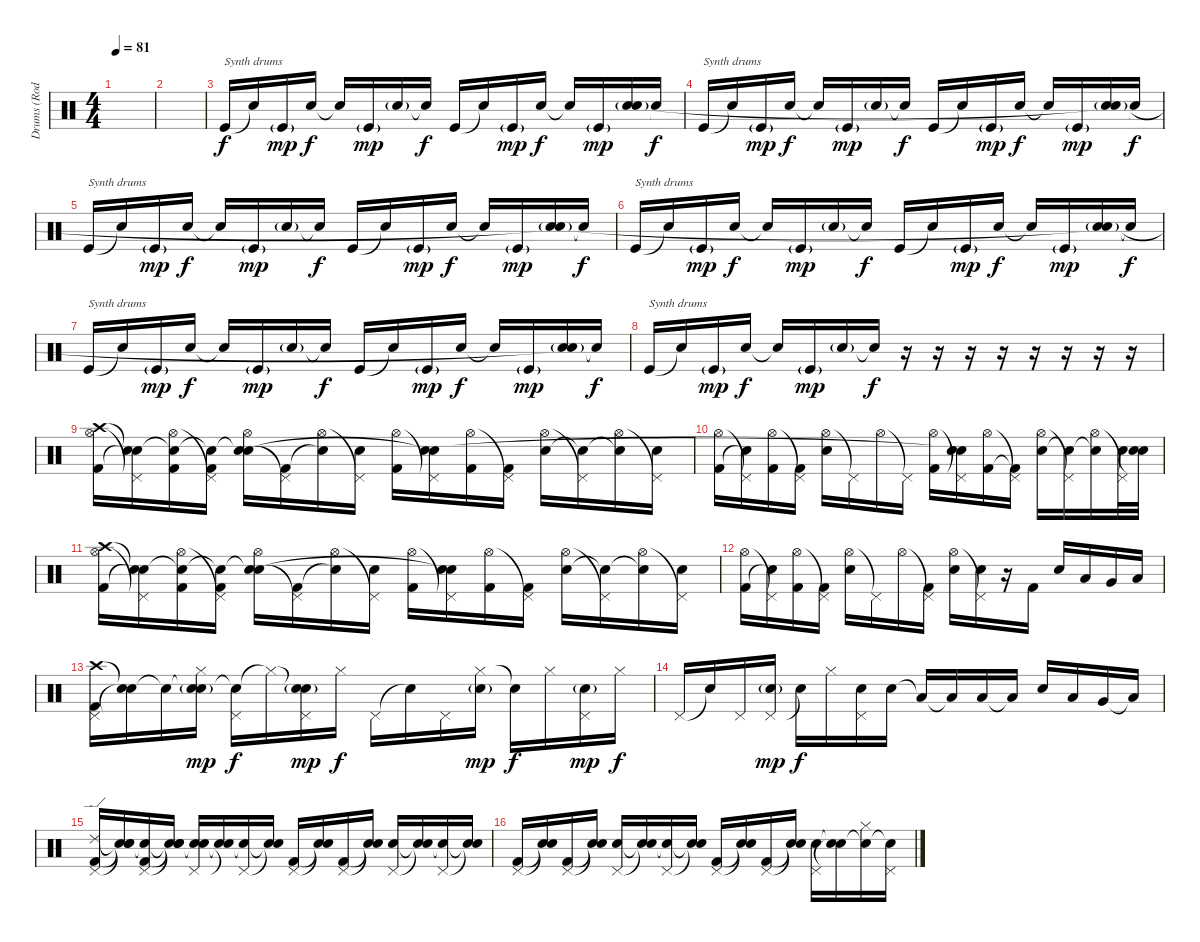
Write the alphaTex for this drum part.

\track ("Drums (Rod Bourdon)" "Drums (Rod") {instrument percussion}
\staff {score}
\articulation defaults
\ts (4 4)
\tempo 81
\clef neutral
\ks c
|
|
"Kick (hit)".16{txt "Synth drums" volume 6} "Snare (hit)"{t}.16 "Kick (hit)"{g}.16{dy mp} "Metronome (bell)".16{dy f} "Snare (hit)"{t}.16 "Kick (hit)"{g}.16{dy mp} "Metronome (bell)"{g}.16 "Snare (hit)"{t}.16{dy f} "Kick (hit)".16 "Snare (hit)"{t}.16 "Kick (hit)"{g}.16{dy mp} "Metronome (bell)".16{dy f} "Snare (hit)"{t}.16 "Kick (hit)"{g}.16{dy mp} ("Metronome (bell)"{g} "Snare (hit)").16 "Snare (hit)"{t}.16{dy f} |
"Kick (hit)".16{txt "Synth drums" volume 6} "Snare (hit)"{t}.16 "Kick (hit)"{g}.16{dy mp} "Metronome (bell)".16{dy f} "Snare (hit)"{t}.16 "Kick (hit)"{g}.16{dy mp} "Metronome (bell)"{g}.16 "Snare (hit)"{t}.16{dy f} "Kick (hit)".16 "Snare (hit)"{t}.16 "Kick (hit)"{g}.16{dy mp} "Metronome (bell)".16{dy f} "Snare (hit)"{t}.16 "Kick (hit)"{g}.16{dy mp} ("Metronome (bell)"{g} "Snare (hit)"{t}).16 "Snare (hit)"{t}.16{dy f} |
"Kick (hit)".16{txt "Synth drums" volume 6} "Snare (hit)"{t}.16 "Kick (hit)"{g}.16{dy mp} "Metronome (bell)".16{dy f} "Snare (hit)"{t}.16 "Kick (hit)"{g}.16{dy mp} "Metronome (bell)"{g}.16 "Snare (hit)"{t}.16{dy f} "Kick (hit)".16 "Snare (hit)"{t}.16 "Kick (hit)"{g}.16{dy mp} "Metronome (bell)".16{dy f} "Snare (hit)"{t}.16 "Kick (hit)"{g}.16{dy mp} ("Metronome (bell)"{g} "Snare (hit)"{t}).16 "Snare (hit)"{t}.16{dy f} |
"Kick (hit)".16{txt "Synth drums" volume 6} "Snare (hit)"{t}.16 "Kick (hit)"{g}.16{dy mp} "Metronome (bell)".16{dy f} "Snare (hit)"{t}.16 "Kick (hit)"{g}.16{dy mp} "Metronome (bell)"{g}.16 "Snare (hit)"{t}.16{dy f} "Kick (hit)".16 "Snare (hit)"{t}.16 "Kick (hit)"{g}.16{dy mp} "Metronome (bell)".16{dy f} "Snare (hit)"{t}.16 "Kick (hit)"{g}.16{dy mp} ("Metronome (bell)"{g} "Snare (hit)"{t}).16 "Snare (hit)"{t}.16{dy f} |
"Kick (hit)".16{txt "Synth drums" volume 6} "Snare (hit)"{t}.16 "Kick (hit)"{g}.16{dy mp} "Metronome (bell)".16{dy f} "Snare (hit)"{t}.16 "Kick (hit)"{g}.16{dy mp} "Metronome (bell)"{g}.16 "Snare (hit)"{t}.16{dy f} "Kick (hit)".16 "Snare (hit)"{t}.16 "Kick (hit)"{g}.16{dy mp} "Metronome (bell)".16{dy f} "Snare (hit)"{t}.16 "Kick (hit)"{g}.16{dy mp} ("Metronome (bell)"{g} "Snare (hit)"{t}).16 "Snare (hit)"{t}.16{dy f} |
"Kick (hit)".16{txt "Synth drums" volume 6} "Snare (hit)"{t}.16 "Kick (hit)"{g}.16{dy mp} "Metronome (bell)".16{dy f} "Snare (hit)"{t}.16 "Kick (hit)"{g}.16{dy mp} "Metronome (bell)"{g}.16 "Snare (hit)"{t}.16{dy f} r.16 r.16 r.16 r.16 r.16 r.16 r.16 r.16 |
("Crash high (hit)" "Hi-Hat (open)" "Kick (hit) 2").16{volume 13} ("Snare (hit)"{t} "Pedal Hi-Hat (hit)"{t} "Snare (hit)"{t}).16 ("Snare (hit)"{t} "Hi-Hat (open)" "Kick (hit) 2").16 ("Snare (hit)"{t} "Pedal Hi-Hat (hit)"{t} "Kick (hit) 2").16 ("Snare (hit)"{t} "Hi-Hat (open)" "Electric Snare (hit)").16 ("Pedal Hi-Hat (hit)"{t} "Kick (hit) 2").16 ("Hi-Hat (open)" "Snare (hit)"{t}).16 ("Pedal Hi-Hat (hit)"{t} "Electric Snare (hit)").16 ("Hi-Hat (open)" "Kick (hit) 2").16 ("Pedal Hi-Hat (hit)"{t} "Electric Snare (hit)" "Snare (hit)"{t}).16 ("Hi-Hat (open)" "Kick (hit) 2").16 ("Pedal Hi-Hat (hit)"{t} "Kick (hit) 2").16 ("Hi-Hat (open)" "Electric Snare (hit)").16 ("Pedal Hi-Hat (hit)"{t} "Snare (hit)"{t}).16 ("Hi-Hat (open)" "Snare (hit)"{t}).16 ("Pedal Hi-Hat (hit)"{t} "Electric Snare (hit)").16 |
("Hi-Hat (open)" "Kick (hit) 2").16 ("Pedal Hi-Hat (hit)"{t} "Snare (hit)"{t}).16 ("Hi-Hat (open)" "Kick (hit) 2").16 ("Pedal Hi-Hat (hit)"{t} "Kick (hit) 2").16 ("Hi-Hat (open)" "Electric Snare (hit)").16 "Pedal Hi-Hat (hit)"{t}.16 "Hi-Hat (open)".16 "Pedal Hi-Hat (hit)"{t}.16 ("Hi-Hat (open)" "Kick (hit) 2").16 ("Pedal Hi-Hat (hit)"{t} "Electric Snare (hit)" "Snare (hit)"{t}).16 ("Hi-Hat (open)" "Kick (hit) 2").16 ("Pedal Hi-Hat (hit)"{t} "Kick (hit) 2"{t}).16 ("Hi-Hat (open)" "Electric Snare (hit)").16 ("Pedal Hi-Hat (hit)"{t} "Snare (hit)"{t}).16 ("Hi-Hat (open)" "Electric Snare (hit)"{t}).16 ("Pedal Hi-Hat (hit)"{t} "Electric Snare (hit)").32 ("Snare (hit)"{t} "Electric Snare (hit)").32 |
("Crash high (hit)" "Hi-Hat (open)" "Kick (hit) 2").16 ("Snare (hit)"{t} "Pedal Hi-Hat (hit)"{t} "Snare (hit)"{t}).16 ("Snare (hit)"{t} "Hi-Hat (open)" "Kick (hit) 2").16 ("Snare (hit)"{t} "Pedal Hi-Hat (hit)"{t} "Kick (hit) 2").16 ("Snare (hit)"{t} "Hi-Hat (open)" "Electric Snare (hit)").16 ("Pedal Hi-Hat (hit)"{t} "Kick (hit) 2").16 ("Hi-Hat (open)" "Snare (hit)"{t}).16 ("Pedal Hi-Hat (hit)"{t} "Electric Snare (hit)").16 ("Hi-Hat (open)" "Kick (hit) 2").16 ("Pedal Hi-Hat (hit)"{t} "Electric Snare (hit)" "Snare (hit)"{t}).16 ("Hi-Hat (open)" "Kick (hit) 2").16 ("Pedal Hi-Hat (hit)"{t} "Kick (hit) 2").16 ("Hi-Hat (open)" "Electric Snare (hit)").16 ("Pedal Hi-Hat (hit)"{t} "Snare (hit)"{t}).16 ("Hi-Hat (open)" "Snare (hit)"{t}).16 ("Pedal Hi-Hat (hit)"{t} "Electric Snare (hit)").16 |
("Hi-Hat (open)" "Kick (hit) 2").16 ("Pedal Hi-Hat (hit)"{t} "Snare (hit)"{t}).16 ("Hi-Hat (open)" "Kick (hit) 2").16 ("Pedal Hi-Hat (hit)"{t} "Kick (hit) 2").16 ("Hi-Hat (open)" "Electric Snare (hit)").16 "Pedal Hi-Hat (hit)"{t}.16 "Hi-Hat (open)".16 ("Pedal Hi-Hat (hit)"{t} "Kick (hit) 2").16 ("Hi-Hat (open)" "Electric Snare (hit)").16 ("Pedal Hi-Hat (hit)"{t} "Electric Snare (hit)").16 r.16 "Kick (hit) 2".16 "Electric Snare (hit)".16 "Low Tom (hit)".16 "Very Low Tom (hit)".16 "Low Floor Tom (hit)".16 |
("Crash high (hit)" "Pedal Hi-Hat (hit)" "Kick (hit) 2").16 ("Snare (hit)"{t} "Snare (hit)"{t}).16 "Snare (hit)"{t}.16 ("Snare (hit)"{t} "Hi-Hat (closed)" "Metronome (bell)"{g}).16{dy mp} ("Snare (hit)"{t} "Pedal Hi-Hat (hit)").16{dy f} "Hi-Hat (closed)"{t}.16 ("Snare (hit)"{t} "Pedal Hi-Hat (hit)" "Metronome (bell)"{g}).16{dy mp} "Hi-Hat (closed)".16{dy f} "Pedal Hi-Hat (hit)".16 "Snare (hit)"{t}.16 "Pedal Hi-Hat (hit)".16 ("Hi-Hat (closed)" "Metronome (bell)"{g}).16{dy mp} "Snare (hit)"{t}.16{dy f} "Hi-Hat (closed)".16 ("Pedal Hi-Hat (hit)" "Metronome (bell)"{g}).16{dy mp} "Hi-Hat (closed)".16{dy f} |
"Pedal Hi-Hat (hit)".16 "Snare (hit)"{t}.16 "Pedal Hi-Hat (hit)".16 ("Pedal Hi-Hat (hit)" "Metronome (bell)"{g}).16{dy mp} "Snare (hit)"{t}.16{dy f} "Hi-Hat (closed)".16 ("Pedal Hi-Hat (hit)" "Metronome (bell)").16 "Electric Snare (hit)".16 "Low Tom (hit)"{t}.16 "Low Tom (hit)"{t}.16 "Low Tom (hit)".16 "Low Tom (hit)"{t}.16 "Electric Snare (hit)".16 "Low Tom (hit)".16 "Very Low Tom (hit)".16 "Low Floor Tom (hit)"{t}.16 |
("Ride (edge) 2" "Pedal Hi-Hat (hit)" "Kick (hit) 2").16 ("Snare (hit)"{t} "Snare (hit)"{t} "Snare (hit)"{t}).16 ("Snare (hit)"{t} "Pedal Hi-Hat (hit)" "Kick (hit) 2").16 ("Snare (hit)"{t} "Snare (hit)"{t} "Snare (hit)"{t}).16 ("Snare (hit)"{t} "Pedal Hi-Hat (hit)" "Electric Snare (hit)").16 ("Snare (hit)"{t} "Snare (hit)"{t}).16 ("Pedal Hi-Hat (hit)" "Snare (hit)"{t}).16 ("Snare (hit)"{t} "Snare (hit)"{t}).16 ("Pedal Hi-Hat (hit)" "Kick (hit) 2").16 ("Snare (hit)"{t} "Snare (hit)"{t}).16 ("Pedal Hi-Hat (hit)" "Kick (hit) 2").16 ("Snare (hit)"{t} "Snare (hit)"{t}).16 ("Pedal Hi-Hat (hit)" "Electric Snare (hit)").16 ("Snare (hit)"{t} "Snare (hit)"{t}).16 ("Pedal Hi-Hat (hit)" "Snare (hit)"{t}).16 ("Snare (hit)"{t} "Snare (hit)"{t}).16 |
("Pedal Hi-Hat (hit)" "Kick (hit) 2").16 ("Snare (hit)"{t} "Snare (hit)"{t}).16 ("Pedal Hi-Hat (hit)" "Kick (hit) 2").16 ("Snare (hit)"{t} "Snare (hit)"{t}).16 ("Pedal Hi-Hat (hit)" "Electric Snare (hit)").16 ("Snare (hit)"{t} "Snare (hit)"{t}).16 ("Pedal Hi-Hat (hit)" "Snare (hit)"{t}).16 ("Snare (hit)"{t} "Snare (hit)"{t}).16 ("Pedal Hi-Hat (hit)" "Kick (hit) 2").16 ("Snare (hit)"{t} "Snare (hit)"{t}).16 ("Pedal Hi-Hat (hit)" "Kick (hit) 2").16 ("Snare (hit)"{t} "Snare (hit)"{t}).16 ("Pedal Hi-Hat (hit)" "Electric Snare (hit)").16 ("Snare (hit)"{t} "Snare (hit)"{t}).16 ("Hi-Hat (closed)" "Snare (hit)"{t}).16 ("Pedal Hi-Hat (hit)" "Snare (hit)"{t}).16
